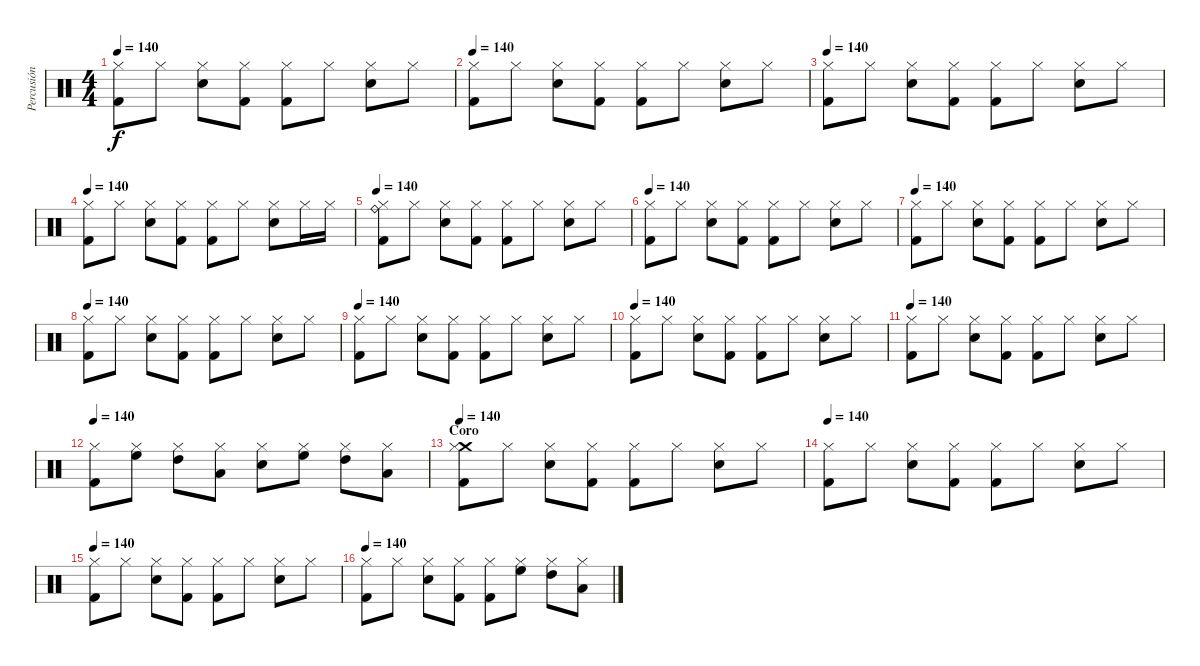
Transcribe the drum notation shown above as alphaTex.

\track ("Percusión" "Percusión") {instrument percussion}
\staff {score}
\articulation defaults
\ts (4 4)
\tempo 140
\clef neutral
\ks c
("Kick (hit) 2" "Hi-Hat (closed)").8{dy f} "Hi-Hat (closed)".8 ("Snare (hit) 2" "Hi-Hat (closed)").8 ("Kick (hit) 2" "Hi-Hat (closed)").8 ("Kick (hit) 2" "Hi-Hat (closed)").8 "Hi-Hat (closed)".8 ("Snare (hit) 2" "Hi-Hat (closed)").8 "Hi-Hat (closed)".8 |
\tempo 140
("Kick (hit) 2" "Hi-Hat (closed)").8 "Hi-Hat (closed)".8 ("Snare (hit) 2" "Hi-Hat (closed)").8 ("Kick (hit) 2" "Hi-Hat (closed)").8 ("Kick (hit) 2" "Hi-Hat (closed)").8 "Hi-Hat (closed)".8 ("Snare (hit) 2" "Hi-Hat (closed)").8 "Hi-Hat (closed)".8 |
\tempo 140
("Kick (hit) 2" "Hi-Hat (closed)").8 "Hi-Hat (closed)".8 ("Snare (hit) 2" "Hi-Hat (closed)").8 ("Kick (hit) 2" "Hi-Hat (closed)").8 ("Kick (hit) 2" "Hi-Hat (closed)").8 "Hi-Hat (closed)".8 ("Snare (hit) 2" "Hi-Hat (closed)").8 "Hi-Hat (closed)".8 |
\tempo 140
("Kick (hit) 2" "Hi-Hat (closed)").8 "Hi-Hat (closed)".8 ("Snare (hit) 2" "Hi-Hat (closed)").8 ("Kick (hit) 2" "Hi-Hat (closed)").8 ("Kick (hit) 2" "Hi-Hat (closed)").8 "Hi-Hat (closed)".8 ("Snare (hit) 2" "Hi-Hat (closed)").8 "Hi-Hat (closed)".16 "Hi-Hat (closed)".16 |
\tempo 140
("Kick (hit) 2" "Ride (bell)" "Hi-Hat (closed)").8 "Hi-Hat (closed)".8 ("Snare (hit) 2" "Hi-Hat (closed)").8 ("Kick (hit) 2" "Hi-Hat (closed)").8 ("Kick (hit) 2" "Hi-Hat (closed)").8 "Hi-Hat (closed)".8 ("Snare (hit) 2" "Hi-Hat (closed)").8 "Hi-Hat (closed)".8 |
\tempo 140
("Kick (hit) 2" "Hi-Hat (closed)").8 "Hi-Hat (closed)".8 ("Snare (hit) 2" "Hi-Hat (closed)").8 ("Kick (hit) 2" "Hi-Hat (closed)").8 ("Kick (hit) 2" "Hi-Hat (closed)").8 "Hi-Hat (closed)".8 ("Snare (hit) 2" "Hi-Hat (closed)").8 "Hi-Hat (closed)".8 |
\tempo 140
("Kick (hit) 2" "Hi-Hat (closed)").8 "Hi-Hat (closed)".8 ("Snare (hit) 2" "Hi-Hat (closed)").8 ("Kick (hit) 2" "Hi-Hat (closed)").8 ("Kick (hit) 2" "Hi-Hat (closed)").8 "Hi-Hat (closed)".8 ("Snare (hit) 2" "Hi-Hat (closed)").8 "Hi-Hat (closed)".8 |
\tempo 140
("Kick (hit) 2" "Hi-Hat (closed)").8 "Hi-Hat (closed)".8 ("Snare (hit) 2" "Hi-Hat (closed)").8 ("Kick (hit) 2" "Hi-Hat (closed)").8 ("Kick (hit) 2" "Hi-Hat (closed)").8 "Hi-Hat (closed)".8 ("Snare (hit) 2" "Hi-Hat (closed)").8 "Hi-Hat (closed)".8 |
\tempo 140
("Kick (hit) 2" "Hi-Hat (closed)").8 "Hi-Hat (closed)".8 ("Snare (hit) 2" "Hi-Hat (closed)").8 ("Kick (hit) 2" "Hi-Hat (closed)").8 ("Kick (hit) 2" "Hi-Hat (closed)").8 "Hi-Hat (closed)".8 ("Snare (hit) 2" "Hi-Hat (closed)").8 "Hi-Hat (closed)".8 |
\tempo 140
("Kick (hit) 2" "Hi-Hat (closed)").8 "Hi-Hat (closed)".8 ("Snare (hit) 2" "Hi-Hat (closed)").8 ("Kick (hit) 2" "Hi-Hat (closed)").8 ("Kick (hit) 2" "Hi-Hat (closed)").8 "Hi-Hat (closed)".8 ("Snare (hit) 2" "Hi-Hat (closed)").8 "Hi-Hat (closed)".8 |
\tempo 140
("Kick (hit) 2" "Hi-Hat (closed)").8 "Hi-Hat (closed)".8 ("Snare (hit) 2" "Hi-Hat (closed)").8 ("Kick (hit) 2" "Hi-Hat (closed)").8 ("Kick (hit) 2" "Hi-Hat (closed)").8 "Hi-Hat (closed)".8 ("Snare (hit) 2" "Hi-Hat (closed)").8 "Hi-Hat (closed)".8 |
\tempo 140
("Kick (hit) 2" "Hi-Hat (closed)").8 ("High Floor Tom (hit)" "Hi-Hat (closed)").8 ("High Tom (hit)" "Hi-Hat (closed)").8 ("Low Tom (hit)" "Hi-Hat (closed)").8 ("Snare (hit) 2" "Hi-Hat (closed)").8 ("High Floor Tom (hit)" "Hi-Hat (closed)").8 ("High Tom (hit)" "Hi-Hat (closed)").8 ("Low Tom (hit)" "Hi-Hat (closed)").8 |
\section ("" "Coro")
\tempo 140
("Kick (hit) 2" "Crash medium (hit)" "Hi-Hat (closed)").8 "Hi-Hat (closed)".8 ("Snare (hit) 2" "Hi-Hat (closed)").8 ("Kick (hit) 2" "Hi-Hat (closed)").8 ("Kick (hit) 2" "Hi-Hat (closed)").8 "Hi-Hat (closed)".8 ("Snare (hit) 2" "Hi-Hat (closed)").8 "Hi-Hat (closed)".8 |
\tempo 140
("Kick (hit) 2" "Hi-Hat (closed)").8 "Hi-Hat (closed)".8 ("Snare (hit) 2" "Hi-Hat (closed)").8 ("Kick (hit) 2" "Hi-Hat (closed)").8 ("Kick (hit) 2" "Hi-Hat (closed)").8 "Hi-Hat (closed)".8 ("Snare (hit) 2" "Hi-Hat (closed)").8 "Hi-Hat (closed)".8 |
\tempo 140
("Kick (hit) 2" "Hi-Hat (closed)").8 "Hi-Hat (closed)".8 ("Snare (hit) 2" "Hi-Hat (closed)").8 ("Kick (hit) 2" "Hi-Hat (closed)").8 ("Kick (hit) 2" "Hi-Hat (closed)").8 "Hi-Hat (closed)".8 ("Snare (hit) 2" "Hi-Hat (closed)").8 "Hi-Hat (closed)".8 |
\tempo 140
("Kick (hit) 2" "Hi-Hat (closed)").8 "Hi-Hat (closed)".8 ("Snare (hit) 2" "Hi-Hat (closed)").8 ("Kick (hit) 2" "Hi-Hat (closed)").8 ("Kick (hit) 2" "Hi-Hat (closed)").8 ("High Floor Tom (hit)" "Hi-Hat (closed)").8 ("High Tom (hit)" "Hi-Hat (closed)").8 ("Low Tom (hit)" "Hi-Hat (closed)").8
